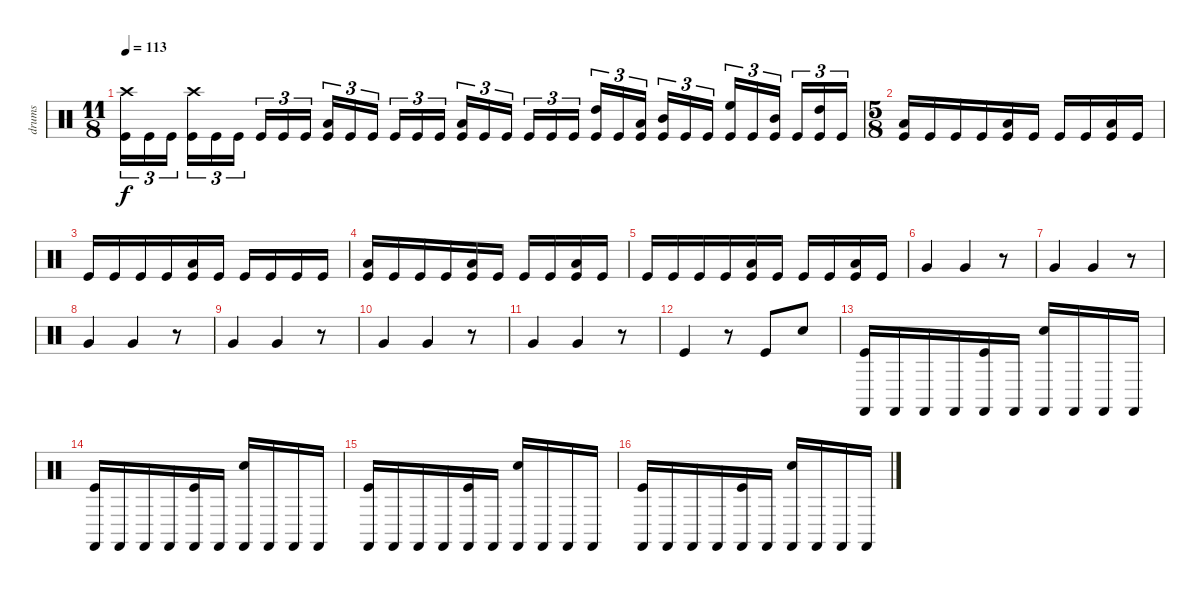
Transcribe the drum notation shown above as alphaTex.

\track ("drums" "drums") {instrument percussion}
\staff {score}
\articulation defaults
\ts (11 8)
\tempo 113
\clef neutral
\ks c
("Crash high (hit)" "Kick (hit)").16{tu (3 2) dy f} "Kick (hit)".16{tu (3 2)} "Kick (hit)".16{tu (3 2)} ("Crash high (hit)" "Kick (hit)").16{tu (3 2)} "Kick (hit)".16{tu (3 2)} "Kick (hit)".16{tu (3 2)} "Kick (hit)".16{tu (3 2)} "Kick (hit)".16{tu (3 2)} "Kick (hit)".16{tu (3 2)} ("Low Tom (hit)" "Kick (hit)").16{tu (3 2)} "Kick (hit)".16{tu (3 2)} "Kick (hit)".16{tu (3 2)} "Kick (hit)".16{tu (3 2)} "Kick (hit)".16{tu (3 2)} "Kick (hit)".16{tu (3 2)} ("Low Tom (hit)" "Kick (hit)").16{tu (3 2)} "Kick (hit)".16{tu (3 2)} "Kick (hit)".16{tu (3 2)} "Kick (hit)".16{tu (3 2)} "Kick (hit)".16{tu (3 2)} "Kick (hit)".16{tu (3 2)} ("High Tom (hit)" "Kick (hit)").16{tu (3 2)} "Kick (hit)".16{tu (3 2)} ("Low Tom (hit)" "Kick (hit)").16{tu (3 2)} ("Mid Tom (hit)" "Kick (hit)").16{tu (3 2)} "Kick (hit)".16{tu (3 2)} "Kick (hit)".16{tu (3 2)} ("High Floor Tom (hit)" "Kick (hit)").16{tu (3 2)} "Kick (hit)".16{tu (3 2)} ("Mid Tom (hit)" "Kick (hit)").16{tu (3 2)} "Kick (hit)".16{tu (3 2)} ("High Tom (hit)" "Kick (hit)").16{tu (3 2)} "Kick (hit)".16{tu (3 2)} |
\ts (5 8)
("Low Tom (hit)" "Kick (hit)").16 "Kick (hit)".16 "Kick (hit)".16 "Kick (hit)".16 ("Low Tom (hit)" "Kick (hit)").16 "Kick (hit)".16 "Kick (hit)".16 "Kick (hit)".16 ("Low Tom (hit)" "Kick (hit)").16 "Kick (hit)".16 |
"Kick (hit)".16 "Kick (hit)".16 "Kick (hit)".16 "Kick (hit)".16 ("Low Tom (hit)" "Kick (hit)").16 "Kick (hit)".16 "Kick (hit)".16 "Kick (hit)".16 "Kick (hit)".16 "Kick (hit)".16 |
("Low Tom (hit)" "Kick (hit)").16 "Kick (hit)".16 "Kick (hit)".16 "Kick (hit)".16 ("Low Tom (hit)" "Kick (hit)").16 "Kick (hit)".16 "Kick (hit)".16 "Kick (hit)".16 ("Low Tom (hit)" "Kick (hit)").16 "Kick (hit)".16 |
"Kick (hit)".16 "Kick (hit)".16 "Kick (hit)".16 "Kick (hit)".16 ("Low Tom (hit)" "Kick (hit)").16 "Kick (hit)".16 "Kick (hit)".16 "Kick (hit)".16 ("Low Tom (hit)" "Kick (hit)").16 "Kick (hit)".16 |
"Very Low Tom (hit)".4 "Very Low Tom (hit)".4 r.8 |
"Very Low Tom (hit)".4 "Very Low Tom (hit)".4 r.8 |
"Very Low Tom (hit)".4 "Very Low Tom (hit)".4 r.8 |
"Very Low Tom (hit)".4 "Very Low Tom (hit)".4 r.8 |
"Very Low Tom (hit)".4 "Very Low Tom (hit)".4 r.8 |
"Very Low Tom (hit)".4 "Very Low Tom (hit)".4 r.8 |
"Kick (hit)".4 r.8 "Kick (hit)".8 "Electric Snare (hit)".8 |
("Kick (hit)" "Castanets (hit)").16 "Castanets (hit)".16 "Castanets (hit)".16 "Castanets (hit)".16 ("Kick (hit)" "Castanets (hit)").16 "Castanets (hit)".16 ("Electric Snare (hit)" "Castanets (hit)").16 "Castanets (hit)".16 "Castanets (hit)".16 "Castanets (hit)".16 |
("Kick (hit)" "Castanets (hit)").16 "Castanets (hit)".16 "Castanets (hit)".16 "Castanets (hit)".16 ("Kick (hit)" "Castanets (hit)").16 "Castanets (hit)".16 ("Electric Snare (hit)" "Castanets (hit)").16 "Castanets (hit)".16 "Castanets (hit)".16 "Castanets (hit)".16 |
("Kick (hit)" "Castanets (hit)").16 "Castanets (hit)".16 "Castanets (hit)".16 "Castanets (hit)".16 ("Kick (hit)" "Castanets (hit)").16 "Castanets (hit)".16 ("Electric Snare (hit)" "Castanets (hit)").16 "Castanets (hit)".16 "Castanets (hit)".16 "Castanets (hit)".16 |
("Kick (hit)" "Castanets (hit)").16 "Castanets (hit)".16 "Castanets (hit)".16 "Castanets (hit)".16 ("Kick (hit)" "Castanets (hit)").16 "Castanets (hit)".16 ("Electric Snare (hit)" "Castanets (hit)").16 "Castanets (hit)".16 "Castanets (hit)".16 "Castanets (hit)".16
